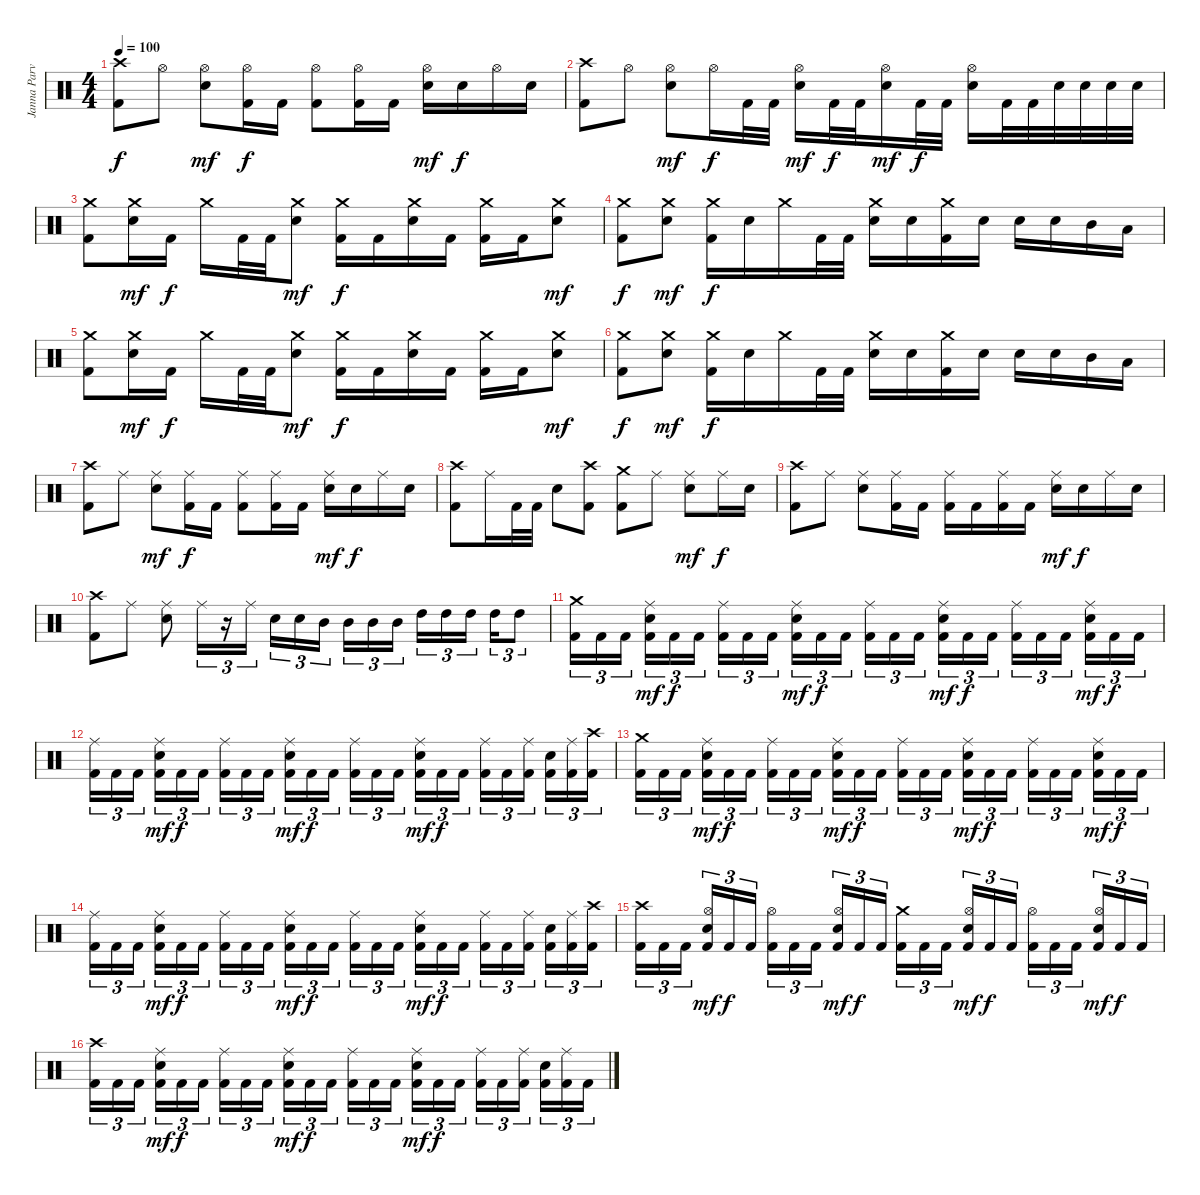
\track ("Janna Parvienen" "Janna Parv") {solo instrument percussion}
\staff {score}
\articulation defaults
\ts (4 4)
\tempo 100
\clef neutral
\ks c
("Crash high (hit)" "Kick (hit) 2").8{dy f} "Hi-Hat (open)".8 ("Hi-Hat (open)" "Electric Snare (hit)").8{dy mf} ("Hi-Hat (open)" "Kick (hit) 2").16{dy f} "Kick (hit) 2".16 ("Hi-Hat (open)" "Kick (hit) 2").8 ("Hi-Hat (open)" "Kick (hit) 2").16 "Kick (hit) 2".16 ("Hi-Hat (open)" "Electric Snare (hit)").16{dy mf} "Electric Snare (hit)".16{dy f} "Hi-Hat (open)".16 "Electric Snare (hit)".16 |
("Crash high (hit)" "Kick (hit) 2").8 "Hi-Hat (open)".8 ("Hi-Hat (open)" "Electric Snare (hit)").8{dy mf} "Hi-Hat (open)".16{dy f} "Kick (hit) 2".32 "Kick (hit) 2".32 ("Hi-Hat (open)" "Electric Snare (hit)").16{dy mf} "Kick (hit) 2".32{dy f} "Kick (hit) 2".32 ("Hi-Hat (open)" "Electric Snare (hit)").16{dy mf} "Kick (hit) 2".32{dy f} "Kick (hit) 2".32 ("Hi-Hat (open)" "Electric Snare (hit)").16 "Kick (hit) 2".32 "Kick (hit) 2".32 "Electric Snare (hit)".32 "Electric Snare (hit)".32 "Electric Snare (hit)".32 "Electric Snare (hit)".32 |
("Crash medium (hit)" "Kick (hit) 2").8 ("Crash medium (hit)" "Electric Snare (hit)").16{dy mf} "Kick (hit) 2".16{dy f} "Crash medium (hit)".16 "Kick (hit) 2".32 "Kick (hit) 2".32 ("Crash medium (hit)" "Electric Snare (hit)").8{dy mf} ("Crash medium (hit)" "Kick (hit) 2").16{dy f} "Kick (hit) 2".16 ("Crash medium (hit)" "Electric Snare (hit)").16 "Kick (hit) 2".16 ("Crash medium (hit)" "Kick (hit) 2").16 "Kick (hit) 2".16 ("Crash medium (hit)" "Electric Snare (hit)").8{dy mf} |
("Crash medium (hit)" "Kick (hit) 2").8{dy f} ("Crash medium (hit)" "Electric Snare (hit)").8{dy mf} ("Crash medium (hit)" "Kick (hit) 2").16{dy f} "Electric Snare (hit)".16 "Crash medium (hit)".16 "Kick (hit) 2".32 "Kick (hit) 2".32 ("Crash medium (hit)" "Electric Snare (hit)").16 "Electric Snare (hit)".16 ("Crash medium (hit)" "Kick (hit) 2").16 "Electric Snare (hit)".16 "Electric Snare (hit)".16 "Electric Snare (hit)".16 "Mid Tom (hit)".16 "Low Tom (hit)".16 |
("Crash medium (hit)" "Kick (hit) 2").8 ("Crash medium (hit)" "Electric Snare (hit)").16{dy mf} "Kick (hit) 2".16{dy f} "Crash medium (hit)".16 "Kick (hit) 2".32 "Kick (hit) 2".32 ("Crash medium (hit)" "Electric Snare (hit)").8{dy mf} ("Crash medium (hit)" "Kick (hit) 2").16{dy f} "Kick (hit) 2".16 ("Crash medium (hit)" "Electric Snare (hit)").16 "Kick (hit) 2".16 ("Crash medium (hit)" "Kick (hit) 2").16 "Kick (hit) 2".16 ("Crash medium (hit)" "Electric Snare (hit)").8{dy mf} |
("Crash medium (hit)" "Kick (hit) 2").8{dy f} ("Crash medium (hit)" "Electric Snare (hit)").8{dy mf} ("Crash medium (hit)" "Kick (hit) 2").16{dy f} "Electric Snare (hit)".16 "Crash medium (hit)".16 "Kick (hit) 2".32 "Kick (hit) 2".32 ("Crash medium (hit)" "Electric Snare (hit)").16 "Electric Snare (hit)".16 ("Crash medium (hit)" "Kick (hit) 2").16 "Electric Snare (hit)".16 "Electric Snare (hit)".16 "Electric Snare (hit)".16 "Mid Tom (hit)".16 "Low Tom (hit)".16 |
("Crash high (hit)" "Kick (hit) 2").8 "Ride (middle)".8 ("Ride (middle)" "Electric Snare (hit)").8{dy mf} ("Ride (middle)" "Kick (hit) 2").16{dy f} "Kick (hit) 2".16 ("Ride (middle)" "Kick (hit) 2").8 ("Ride (middle)" "Kick (hit) 2").16 "Kick (hit) 2".16 ("Ride (middle)" "Electric Snare (hit)").16{dy mf} "Electric Snare (hit)".16{dy f} "Ride (middle)".16 "Electric Snare (hit)".16 |
("Crash high (hit)" "Kick (hit) 2").8 "Ride (middle)".16 "Kick (hit) 2".32 "Kick (hit) 2".32 "Electric Snare (hit)".8 ("Crash high (hit)" "Kick (hit) 2").8 ("Crash medium (hit)" "Kick (hit) 2").8 "Ride (middle)".8 ("Ride (middle)" "Electric Snare (hit)").8{dy mf} "Ride (middle)".16{dy f} "Electric Snare (hit)".16 |
("Crash high (hit)" "Kick (hit) 2").8 "Ride (middle)".8 ("Ride (middle)" "Electric Snare (hit)").8 ("Ride (middle)" "Kick (hit) 2").16 "Kick (hit) 2".16 ("Ride (middle)" "Kick (hit) 2").16 "Kick (hit) 2".16 ("Ride (middle)" "Kick (hit) 2").16 "Kick (hit) 2".16 ("Ride (middle)" "Electric Snare (hit)").16{dy mf} "Electric Snare (hit)".16{dy f} "Ride (middle)".16 "Electric Snare (hit)".16 |
("Crash high (hit)" "Kick (hit) 2").8 "Ride (middle)".8 ("Ride (middle)" "Electric Snare (hit)").8 "Ride (middle)".16{tu (3 2)} r.16{tu (3 2)} "Ride (middle)".16{tu (3 2)} "Electric Snare (hit)".16{tu (3 2)} "Electric Snare (hit)".16{tu (3 2)} "Mid Tom (hit)".16{tu (3 2) beam splitsecondary} "Mid Tom (hit)".16{tu (3 2)} "Mid Tom (hit)".16{tu (3 2)} "Mid Tom (hit)".16{tu (3 2)} "High Tom (hit)".16{tu (3 2)} "High Tom (hit)".16{tu (3 2)} "High Tom (hit)".16{tu (3 2) beam splitsecondary} "High Tom (hit)".16{tu (3 2)} "High Tom (hit)".8{tu (3 2)} |
("Crash medium (hit)" "Kick (hit) 2").16{tu (3 2)} "Kick (hit) 2".16{tu (3 2)} "Kick (hit) 2".16{tu (3 2) beam splitsecondary} ("Ride (middle)" "Electric Snare (hit)" "Kick (hit) 2").16{tu (3 2) dy mf} "Kick (hit) 2".16{tu (3 2) dy f} "Kick (hit) 2".16{tu (3 2)} ("Ride (middle)" "Kick (hit) 2").16{tu (3 2)} "Kick (hit) 2".16{tu (3 2)} "Kick (hit) 2".16{tu (3 2) beam splitsecondary} ("Ride (middle)" "Electric Snare (hit)" "Kick (hit) 2").16{tu (3 2) dy mf} "Kick (hit) 2".16{tu (3 2) dy f} "Kick (hit) 2".16{tu (3 2)} ("Ride (middle)" "Kick (hit) 2").16{tu (3 2)} "Kick (hit) 2".16{tu (3 2)} "Kick (hit) 2".16{tu (3 2) beam splitsecondary} ("Ride (middle)" "Electric Snare (hit)" "Kick (hit) 2").16{tu (3 2) dy mf} "Kick (hit) 2".16{tu (3 2) dy f} "Kick (hit) 2".16{tu (3 2)} ("Ride (middle)" "Kick (hit) 2").16{tu (3 2)} "Kick (hit) 2".16{tu (3 2)} "Kick (hit) 2".16{tu (3 2) beam splitsecondary} ("Ride (middle)" "Electric Snare (hit)" "Kick (hit) 2").16{tu (3 2) dy mf} "Kick (hit) 2".16{tu (3 2) dy f} "Kick (hit) 2".16{tu (3 2)} |
("Ride (middle)" "Kick (hit) 2").16{tu (3 2)} "Kick (hit) 2".16{tu (3 2)} "Kick (hit) 2".16{tu (3 2) beam splitsecondary} ("Ride (middle)" "Electric Snare (hit)" "Kick (hit) 2").16{tu (3 2) dy mf} "Kick (hit) 2".16{tu (3 2) dy f} "Kick (hit) 2".16{tu (3 2)} ("Ride (middle)" "Kick (hit) 2").16{tu (3 2)} "Kick (hit) 2".16{tu (3 2)} "Kick (hit) 2".16{tu (3 2) beam splitsecondary} ("Ride (middle)" "Electric Snare (hit)" "Kick (hit) 2").16{tu (3 2) dy mf} "Kick (hit) 2".16{tu (3 2) dy f} "Kick (hit) 2".16{tu (3 2)} ("Ride (middle)" "Kick (hit) 2").16{tu (3 2)} "Kick (hit) 2".16{tu (3 2)} "Kick (hit) 2".16{tu (3 2) beam splitsecondary} ("Ride (middle)" "Electric Snare (hit)" "Kick (hit) 2").16{tu (3 2) dy mf} "Kick (hit) 2".16{tu (3 2) dy f} "Kick (hit) 2".16{tu (3 2)} ("Ride (middle)" "Kick (hit) 2").16{tu (3 2)} "Kick (hit) 2".16{tu (3 2)} ("Ride (middle)" "Kick (hit) 2").16{tu (3 2) beam splitsecondary} ("Electric Snare (hit)" "Kick (hit) 2").16{tu (3 2)} ("Ride (middle)" "Kick (hit) 2").16{tu (3 2)} ("Crash high (hit)" "Kick (hit) 2").16{tu (3 2)} |
("Crash medium (hit)" "Kick (hit) 2").16{tu (3 2)} "Kick (hit) 2".16{tu (3 2)} "Kick (hit) 2".16{tu (3 2) beam splitsecondary} ("Ride (middle)" "Electric Snare (hit)" "Kick (hit) 2").16{tu (3 2) dy mf} "Kick (hit) 2".16{tu (3 2) dy f} "Kick (hit) 2".16{tu (3 2)} ("Ride (middle)" "Kick (hit) 2").16{tu (3 2)} "Kick (hit) 2".16{tu (3 2)} "Kick (hit) 2".16{tu (3 2) beam splitsecondary} ("Ride (middle)" "Electric Snare (hit)" "Kick (hit) 2").16{tu (3 2) dy mf} "Kick (hit) 2".16{tu (3 2) dy f} "Kick (hit) 2".16{tu (3 2)} ("Ride (middle)" "Kick (hit) 2").16{tu (3 2)} "Kick (hit) 2".16{tu (3 2)} "Kick (hit) 2".16{tu (3 2) beam splitsecondary} ("Ride (middle)" "Electric Snare (hit)" "Kick (hit) 2").16{tu (3 2) dy mf} "Kick (hit) 2".16{tu (3 2) dy f} "Kick (hit) 2".16{tu (3 2)} ("Ride (middle)" "Kick (hit) 2").16{tu (3 2)} "Kick (hit) 2".16{tu (3 2)} "Kick (hit) 2".16{tu (3 2) beam splitsecondary} ("Ride (middle)" "Electric Snare (hit)" "Kick (hit) 2").16{tu (3 2) dy mf} "Kick (hit) 2".16{tu (3 2) dy f} "Kick (hit) 2".16{tu (3 2)} |
("Ride (middle)" "Kick (hit) 2").16{tu (3 2)} "Kick (hit) 2".16{tu (3 2)} "Kick (hit) 2".16{tu (3 2) beam splitsecondary} ("Ride (middle)" "Electric Snare (hit)" "Kick (hit) 2").16{tu (3 2) dy mf} "Kick (hit) 2".16{tu (3 2) dy f} "Kick (hit) 2".16{tu (3 2)} ("Ride (middle)" "Kick (hit) 2").16{tu (3 2)} "Kick (hit) 2".16{tu (3 2)} "Kick (hit) 2".16{tu (3 2) beam splitsecondary} ("Ride (middle)" "Electric Snare (hit)" "Kick (hit) 2").16{tu (3 2) dy mf} "Kick (hit) 2".16{tu (3 2) dy f} "Kick (hit) 2".16{tu (3 2)} ("Ride (middle)" "Kick (hit) 2").16{tu (3 2)} "Kick (hit) 2".16{tu (3 2)} "Kick (hit) 2".16{tu (3 2) beam splitsecondary} ("Ride (middle)" "Electric Snare (hit)" "Kick (hit) 2").16{tu (3 2) dy mf} "Kick (hit) 2".16{tu (3 2) dy f} "Kick (hit) 2".16{tu (3 2)} ("Ride (middle)" "Kick (hit) 2").16{tu (3 2)} "Kick (hit) 2".16{tu (3 2)} ("Ride (middle)" "Kick (hit) 2").16{tu (3 2) beam splitsecondary} ("Electric Snare (hit)" "Kick (hit) 2").16{tu (3 2)} ("Ride (middle)" "Kick (hit) 2").16{tu (3 2)} ("Crash high (hit)" "Kick (hit) 2").16{tu (3 2)} |
("Crash high (hit)" "Kick (hit) 2").16{tu (3 2)} "Kick (hit) 2".16{tu (3 2)} "Kick (hit) 2".16{tu (3 2) beam splitsecondary} ("Hi-Hat (open)" "Electric Snare (hit)" "Kick (hit) 2").16{tu (3 2) dy mf} "Kick (hit) 2".16{tu (3 2) dy f} "Kick (hit) 2".16{tu (3 2)} ("Hi-Hat (open)" "Kick (hit) 2").16{tu (3 2)} "Kick (hit) 2".16{tu (3 2)} "Kick (hit) 2".16{tu (3 2) beam splitsecondary} ("Hi-Hat (open)" "Electric Snare (hit)" "Kick (hit) 2").16{tu (3 2) dy mf} "Kick (hit) 2".16{tu (3 2) dy f} "Kick (hit) 2".16{tu (3 2)} ("Crash medium (hit)" "Kick (hit) 2").16{tu (3 2)} "Kick (hit) 2".16{tu (3 2)} "Kick (hit) 2".16{tu (3 2) beam splitsecondary} ("Hi-Hat (open)" "Electric Snare (hit)" "Kick (hit) 2").16{tu (3 2) dy mf} "Kick (hit) 2".16{tu (3 2) dy f} "Kick (hit) 2".16{tu (3 2)} ("Hi-Hat (open)" "Kick (hit) 2").16{tu (3 2)} "Kick (hit) 2".16{tu (3 2)} "Kick (hit) 2".16{tu (3 2) beam splitsecondary} ("Hi-Hat (open)" "Electric Snare (hit)" "Kick (hit) 2").16{tu (3 2) dy mf} "Kick (hit) 2".16{tu (3 2) dy f} "Kick (hit) 2".16{tu (3 2)} |
("Crash high (hit)" "Kick (hit) 2").16{tu (3 2)} "Kick (hit) 2".16{tu (3 2)} "Kick (hit) 2".16{tu (3 2) beam splitsecondary} ("Ride (middle)" "Electric Snare (hit)" "Kick (hit) 2").16{tu (3 2) dy mf} "Kick (hit) 2".16{tu (3 2) dy f} "Kick (hit) 2".16{tu (3 2)} ("Ride (middle)" "Kick (hit) 2").16{tu (3 2)} "Kick (hit) 2".16{tu (3 2)} "Kick (hit) 2".16{tu (3 2) beam splitsecondary} ("Ride (middle)" "Electric Snare (hit)" "Kick (hit) 2").16{tu (3 2) dy mf} "Kick (hit) 2".16{tu (3 2) dy f} "Kick (hit) 2".16{tu (3 2)} ("Ride (middle)" "Kick (hit) 2").16{tu (3 2)} "Kick (hit) 2".16{tu (3 2)} "Kick (hit) 2".16{tu (3 2) beam splitsecondary} ("Ride (middle)" "Electric Snare (hit)" "Kick (hit) 2").16{tu (3 2) dy mf} "Kick (hit) 2".16{tu (3 2) dy f} "Kick (hit) 2".16{tu (3 2)} ("Ride (middle)" "Kick (hit) 2").16{tu (3 2)} "Kick (hit) 2".16{tu (3 2)} ("Ride (middle)" "Kick (hit) 2").16{tu (3 2) beam splitsecondary} ("Electric Snare (hit)" "Kick (hit) 2").16{tu (3 2)} ("Ride (middle)" "Kick (hit) 2").16{tu (3 2)} "Kick (hit) 2".16{tu (3 2)}
